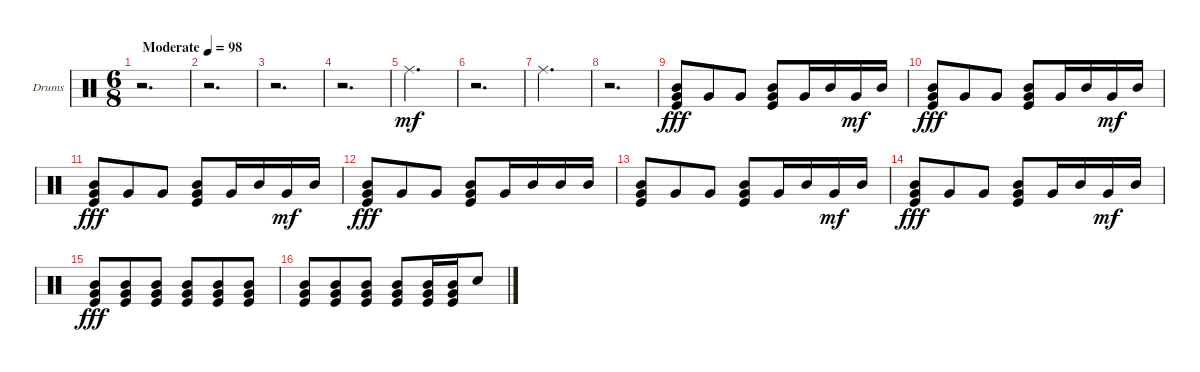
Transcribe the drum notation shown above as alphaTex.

\bracketExtendMode groupsimilarinstruments
\firstSystemTrackNameOrientation horizontal
\otherSystemsTrackNameOrientation horizontal
\track ("Andrew Forsman" "Drums") {instrument percussion}
\staff {score}
\articulation defaults
\ts (6 8)
\beaming (8 3 3)
\tempo (98 "Moderate")
\clef neutral
\scale
0.474178
\ks c
r.2{d dy mf} |
\scale
0.262911 r.2{d} |
\scale
0.262911 r.2{d} |
\scale
0.333333 r.2{d} |
\scale
0.333333 "Ride (middle)".2{d} |
\scale
0.333333 r.2{d} |
\scale
0.333333 "Ride (middle)".2{d} |
\scale
0.333333 r.2{d} |
\scale
0.333333 ("Very Low Tom (hit)" "Mid Tom (hit)" "Kick (hit)").8{dy fff} "Very Low Tom (hit)".8 "Very Low Tom (hit)".8 ("Very Low Tom (hit)" "Mid Tom (hit)" "Kick (hit)").8 "Very Low Tom (hit)".16 "Mid Tom (hit)".16 "Very Low Tom (hit)".16{dy mf} "Mid Tom (hit)".16 |
\scale
0.333333 ("Very Low Tom (hit)" "Mid Tom (hit)" "Kick (hit)").8{dy fff} "Very Low Tom (hit)".8 "Very Low Tom (hit)".8 ("Very Low Tom (hit)" "Mid Tom (hit)" "Kick (hit)").8 "Very Low Tom (hit)".16 "Mid Tom (hit)".16 "Very Low Tom (hit)".16{dy mf} "Mid Tom (hit)".16 |
\scale
0.333333 ("Very Low Tom (hit)" "Mid Tom (hit)" "Kick (hit)").8{dy fff} "Very Low Tom (hit)".8 "Very Low Tom (hit)".8 ("Very Low Tom (hit)" "Mid Tom (hit)" "Kick (hit)").8 "Very Low Tom (hit)".16 "Mid Tom (hit)".16 "Very Low Tom (hit)".16{dy mf} "Mid Tom (hit)".16 |
\scale
0.333333 ("Very Low Tom (hit)" "Mid Tom (hit)" "Kick (hit)").8{dy fff} "Very Low Tom (hit)".8 "Very Low Tom (hit)".8 ("Very Low Tom (hit)" "Mid Tom (hit)" "Kick (hit)").8 "Very Low Tom (hit)".16 "Mid Tom (hit)".16 "Mid Tom (hit)".16 "Mid Tom (hit)".16 |
\scale
0.333333 ("Very Low Tom (hit)" "Mid Tom (hit)" "Kick (hit)").8 "Very Low Tom (hit)".8 "Very Low Tom (hit)".8 ("Very Low Tom (hit)" "Mid Tom (hit)" "Kick (hit)").8 "Very Low Tom (hit)".16 "Mid Tom (hit)".16 "Very Low Tom (hit)".16{dy mf} "Mid Tom (hit)".16 |
\scale
0.333333 ("Very Low Tom (hit)" "Mid Tom (hit)" "Kick (hit)").8{dy fff} "Very Low Tom (hit)".8 "Very Low Tom (hit)".8 ("Very Low Tom (hit)" "Mid Tom (hit)" "Kick (hit)").8 "Very Low Tom (hit)".16 "Mid Tom (hit)".16 "Very Low Tom (hit)".16{dy mf} "Mid Tom (hit)".16 |
\scale
0.333333 ("Kick (hit)" "Mid Tom (hit)" "Very Low Tom (hit)").8{dy fff} ("Very Low Tom (hit)" "Mid Tom (hit)" "Kick (hit)").8 ("Kick (hit)" "Very Low Tom (hit)" "Mid Tom (hit)").8 ("Mid Tom (hit)" "Very Low Tom (hit)" "Kick (hit)").8 ("Kick (hit)" "Very Low Tom (hit)" "Mid Tom (hit)").8 ("Mid Tom (hit)" "Very Low Tom (hit)" "Kick (hit)").8 |
\scale
0.333333 ("Kick (hit)" "Mid Tom (hit)" "Very Low Tom (hit)").8 ("Very Low Tom (hit)" "Mid Tom (hit)" "Kick (hit)").8 ("Kick (hit)" "Very Low Tom (hit)" "Mid Tom (hit)").8 ("Mid Tom (hit)" "Very Low Tom (hit)" "Kick (hit)").8 ("Kick (hit)" "Very Low Tom (hit)" "Mid Tom (hit)").16 ("Mid Tom (hit)" "Very Low Tom (hit)" "Kick (hit)").16 "Snare (hit) 2".8
